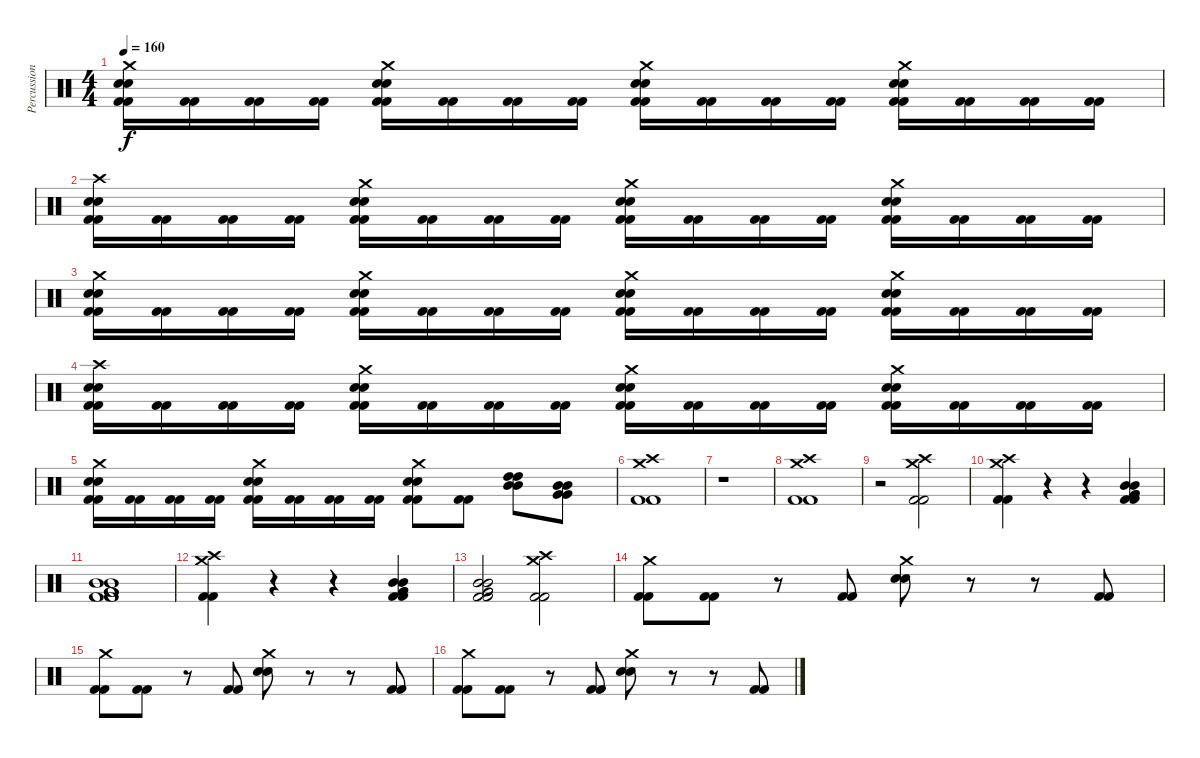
\track ("Percussion" "Percussion") {instrument percussion}
\staff {score}
\articulation defaults
\ts (4 4)
\tempo 160
\clef neutral
\ks c
("Crash medium (hit)" "Snare (hit) 2" "Snare (hit) 2" "Kick (hit) 2" "Kick (hit) 2").16{dy f} ("Kick (hit) 2" "Kick (hit) 2").16 ("Kick (hit) 2" "Kick (hit) 2").16 ("Kick (hit) 2" "Kick (hit) 2").16 ("Crash medium (hit)" "Snare (hit) 2" "Snare (hit) 2" "Kick (hit) 2" "Kick (hit) 2").16 ("Kick (hit) 2" "Kick (hit) 2").16 ("Kick (hit) 2" "Kick (hit) 2").16 ("Kick (hit) 2" "Kick (hit) 2").16 ("Crash medium (hit)" "Snare (hit) 2" "Snare (hit) 2" "Kick (hit) 2" "Kick (hit) 2").16 ("Kick (hit) 2" "Kick (hit) 2").16 ("Kick (hit) 2" "Kick (hit) 2").16 ("Kick (hit) 2" "Kick (hit) 2").16 ("Crash medium (hit)" "Snare (hit) 2" "Snare (hit) 2" "Kick (hit) 2" "Kick (hit) 2").16 ("Kick (hit) 2" "Kick (hit) 2").16 ("Kick (hit) 2" "Kick (hit) 2").16 ("Kick (hit) 2" "Kick (hit) 2").16 |
("Crash high (hit)" "Snare (hit) 2" "Snare (hit) 2" "Kick (hit) 2" "Kick (hit) 2").16 ("Kick (hit) 2" "Kick (hit) 2").16 ("Kick (hit) 2" "Kick (hit) 2").16 ("Kick (hit) 2" "Kick (hit) 2").16 ("Crash medium (hit)" "Snare (hit) 2" "Snare (hit) 2" "Kick (hit) 2" "Kick (hit) 2").16 ("Kick (hit) 2" "Kick (hit) 2").16 ("Kick (hit) 2" "Kick (hit) 2").16 ("Kick (hit) 2" "Kick (hit) 2").16 ("Crash medium (hit)" "Snare (hit) 2" "Snare (hit) 2" "Kick (hit) 2" "Kick (hit) 2").16 ("Kick (hit) 2" "Kick (hit) 2").16 ("Kick (hit) 2" "Kick (hit) 2").16 ("Kick (hit) 2" "Kick (hit) 2").16 ("Crash medium (hit)" "Snare (hit) 2" "Snare (hit) 2" "Kick (hit) 2" "Kick (hit) 2").16 ("Kick (hit) 2" "Kick (hit) 2").16 ("Kick (hit) 2" "Kick (hit) 2").16 ("Kick (hit) 2" "Kick (hit) 2").16 |
("Crash medium (hit)" "Snare (hit) 2" "Snare (hit) 2" "Kick (hit) 2" "Kick (hit) 2").16 ("Kick (hit) 2" "Kick (hit) 2").16 ("Kick (hit) 2" "Kick (hit) 2").16 ("Kick (hit) 2" "Kick (hit) 2").16 ("Crash medium (hit)" "Snare (hit) 2" "Snare (hit) 2" "Kick (hit) 2" "Kick (hit) 2").16 ("Kick (hit) 2" "Kick (hit) 2").16 ("Kick (hit) 2" "Kick (hit) 2").16 ("Kick (hit) 2" "Kick (hit) 2").16 ("Crash medium (hit)" "Snare (hit) 2" "Snare (hit) 2" "Kick (hit) 2" "Kick (hit) 2").16 ("Kick (hit) 2" "Kick (hit) 2").16 ("Kick (hit) 2" "Kick (hit) 2").16 ("Kick (hit) 2" "Kick (hit) 2").16 ("Crash medium (hit)" "Snare (hit) 2" "Snare (hit) 2" "Kick (hit) 2" "Kick (hit) 2").16 ("Kick (hit) 2" "Kick (hit) 2").16 ("Kick (hit) 2" "Kick (hit) 2").16 ("Kick (hit) 2" "Kick (hit) 2").16 |
("Crash high (hit)" "Snare (hit) 2" "Snare (hit) 2" "Kick (hit) 2" "Kick (hit) 2").16 ("Kick (hit) 2" "Kick (hit) 2").16 ("Kick (hit) 2" "Kick (hit) 2").16 ("Kick (hit) 2" "Kick (hit) 2").16 ("Crash medium (hit)" "Snare (hit) 2" "Snare (hit) 2" "Kick (hit) 2" "Kick (hit) 2").16 ("Kick (hit) 2" "Kick (hit) 2").16 ("Kick (hit) 2" "Kick (hit) 2").16 ("Kick (hit) 2" "Kick (hit) 2").16 ("Crash medium (hit)" "Snare (hit) 2" "Snare (hit) 2" "Kick (hit) 2" "Kick (hit) 2").16 ("Kick (hit) 2" "Kick (hit) 2").16 ("Kick (hit) 2" "Kick (hit) 2").16 ("Kick (hit) 2" "Kick (hit) 2").16 ("Crash medium (hit)" "Snare (hit) 2" "Snare (hit) 2" "Kick (hit) 2" "Kick (hit) 2").16 ("Kick (hit) 2" "Kick (hit) 2").16 ("Kick (hit) 2" "Kick (hit) 2").16 ("Kick (hit) 2" "Kick (hit) 2").16 |
("Crash medium (hit)" "Snare (hit) 2" "Snare (hit) 2" "Kick (hit) 2" "Kick (hit) 2").16 ("Kick (hit) 2" "Kick (hit) 2").16 ("Kick (hit) 2" "Kick (hit) 2").16 ("Kick (hit) 2" "Kick (hit) 2").16 ("Crash medium (hit)" "Snare (hit) 2" "Snare (hit) 2" "Kick (hit) 2" "Kick (hit) 2").16 ("Kick (hit) 2" "Kick (hit) 2").16 ("Kick (hit) 2" "Kick (hit) 2").16 ("Kick (hit) 2" "Kick (hit) 2").16 ("Crash medium (hit)" "Snare (hit) 2" "Snare (hit) 2" "Kick (hit) 2" "Kick (hit) 2").8 ("Kick (hit) 2" "Kick (hit) 2").8 ("Mid Tom (hit)" "Mid Tom (hit)" "High Tom (hit)" "High Tom (hit)").8 ("Very Low Tom (hit)" "Very Low Tom (hit)" "Mid Tom (hit)" "Mid Tom (hit)").8 |
("Crash medium (hit)" "Crash high (hit)" "Kick (hit) 2" "Kick (hit) 2").1 |
r.1 |
("Crash medium (hit)" "Crash high (hit)" "Kick (hit) 2" "Kick (hit) 2").1 |
r.2 ("Crash high (hit)" "Crash medium (hit)" "Kick (hit) 2" "Kick (hit) 2").2 |
("Crash medium (hit)" "Crash high (hit)" "Kick (hit) 2" "Kick (hit) 2").4 r.4 r.4 ("Kick (hit) 2" "Mid Tom (hit)" "Mid Tom (hit)" "Very Low Tom (hit)" "Very Low Tom (hit)" "Kick (hit) 2").4 |
("Kick (hit) 2" "Mid Tom (hit)" "Mid Tom (hit)" "Very Low Tom (hit)" "Very Low Tom (hit)" "Kick (hit) 2").1 |
("Crash medium (hit)" "Crash high (hit)" "Kick (hit) 2" "Kick (hit) 2").4 r.4 r.4 ("Kick (hit) 2" "Mid Tom (hit)" "Mid Tom (hit)" "Very Low Tom (hit)" "Very Low Tom (hit)" "Kick (hit) 2").4 |
("Kick (hit) 2" "Mid Tom (hit)" "Mid Tom (hit)" "Very Low Tom (hit)" "Very Low Tom (hit)" "Kick (hit) 2").2 ("Crash high (hit)" "Crash medium (hit)" "Kick (hit) 2" "Kick (hit) 2").2 |
("Crash medium (hit)" "Kick (hit) 2" "Kick (hit) 2").8 ("Kick (hit) 2" "Kick (hit) 2").8 r.8 ("Kick (hit) 2" "Kick (hit) 2").8 ("Crash medium (hit)" "Snare (hit) 2" "Snare (hit) 2").8 r.8 r.8 ("Kick (hit) 2" "Kick (hit) 2").8 |
("Crash medium (hit)" "Kick (hit) 2" "Kick (hit) 2").8 ("Kick (hit) 2" "Kick (hit) 2").8 r.8 ("Kick (hit) 2" "Kick (hit) 2").8 ("Crash medium (hit)" "Snare (hit) 2" "Snare (hit) 2").8 r.8 r.8 ("Kick (hit) 2" "Kick (hit) 2").8 |
("Crash medium (hit)" "Kick (hit) 2" "Kick (hit) 2").8 ("Kick (hit) 2" "Kick (hit) 2").8 r.8 ("Kick (hit) 2" "Kick (hit) 2").8 ("Crash medium (hit)" "Snare (hit) 2" "Snare (hit) 2").8 r.8 r.8 ("Kick (hit) 2" "Kick (hit) 2").8
